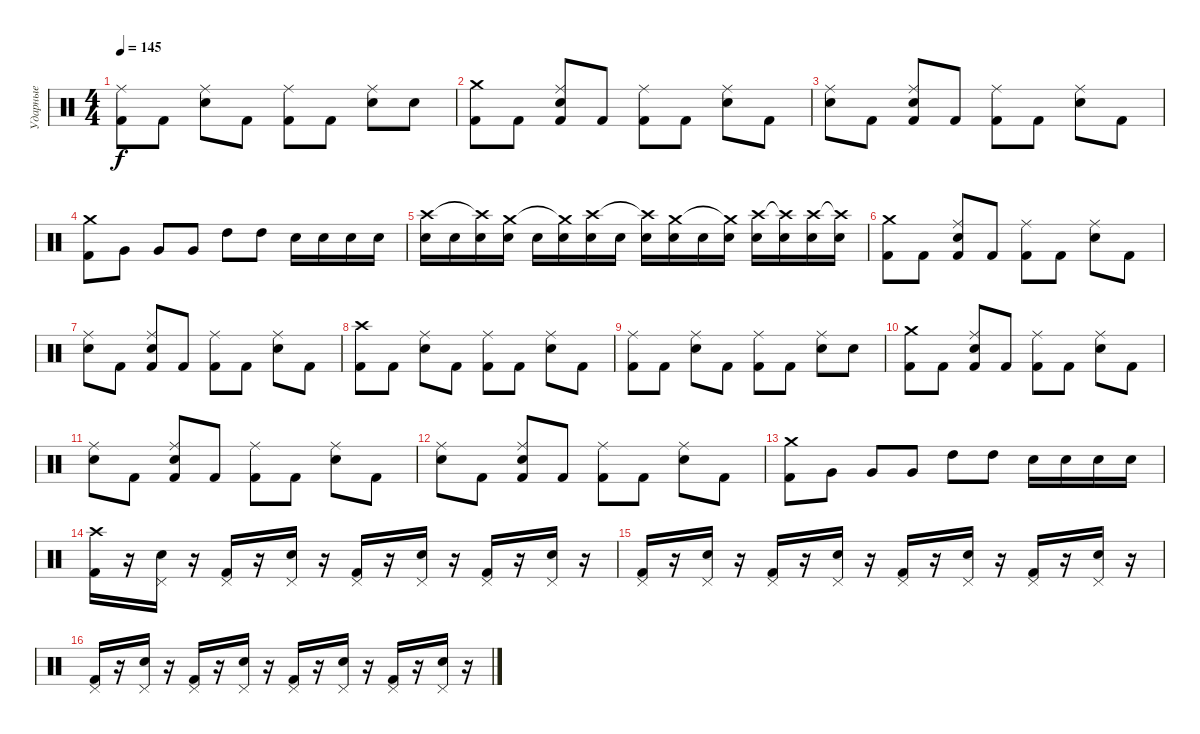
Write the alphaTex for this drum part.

\track ("Ударные" "Ударные") {instrument percussion}
\staff {score}
\articulation defaults
\ts (4 4)
\tempo 145
\clef neutral
\ks c
("Kick (hit) 2" "Ride (middle)").8{dy f} "Kick (hit) 2".8 ("Ride (middle)" "Electric Snare (hit)").8 "Kick (hit) 2".8 ("Kick (hit) 2" "Ride (middle)").8 "Kick (hit) 2".8 ("Electric Snare (hit)" "Ride (middle)").8 "Electric Snare (hit)".8 |
("Crash medium (hit)" "Kick (hit) 2").8 "Kick (hit) 2".8 ("Ride (middle)" "Kick (hit) 2" "Electric Snare (hit)").8 "Kick (hit) 2".8 ("Kick (hit) 2" "Ride (middle)").8 "Kick (hit) 2".8 ("Ride (middle)" "Electric Snare (hit)").8 "Kick (hit) 2".8 |
("Ride (middle)" "Electric Snare (hit)").8 "Kick (hit) 2".8 ("Ride (middle)" "Electric Snare (hit)" "Kick (hit) 2").8 "Kick (hit) 2".8 ("Ride (middle)" "Kick (hit) 2").8 "Kick (hit) 2".8 ("Ride (middle)" "Electric Snare (hit)").8 "Kick (hit) 2".8 |
("Crash medium (hit)" "Kick (hit) 2").8 "Very Low Tom (hit)".8 "Very Low Tom (hit)".8 "Very Low Tom (hit)".8 "High Tom (hit)".8 "High Tom (hit)".8 "Electric Snare (hit)".16 "Electric Snare (hit)".16 "Electric Snare (hit)".16 "Electric Snare (hit)".16 |
("Electric Snare (hit)" "Crash high (hit)").16 "Electric Snare (hit)".16 ("Electric Snare (hit)" "Crash high (hit)"{t}).16 ("Electric Snare (hit)" "Crash medium (hit)").16 "Electric Snare (hit)".16 ("Electric Snare (hit)" "Crash medium (hit)"{t}).16 ("Electric Snare (hit)" "Crash high (hit)").16 "Electric Snare (hit)".16 ("Electric Snare (hit)" "Crash high (hit)"{t}).16 ("Electric Snare (hit)" "Crash medium (hit)").16 "Electric Snare (hit)".16 ("Electric Snare (hit)" "Crash medium (hit)"{t}).16 ("Electric Snare (hit)" "Crash high (hit)").16 ("Electric Snare (hit)" "Crash high (hit)"{t}).16 ("Electric Snare (hit)" "Crash high (hit)").16 ("Electric Snare (hit)" "Crash high (hit)"{t}).16 |
("Crash medium (hit)" "Kick (hit) 2").8 "Kick (hit) 2".8 ("Ride (middle)" "Kick (hit) 2" "Electric Snare (hit)").8 "Kick (hit) 2".8 ("Kick (hit) 2" "Ride (middle)").8 "Kick (hit) 2".8 ("Ride (middle)" "Electric Snare (hit)").8 "Kick (hit) 2".8 |
("Ride (middle)" "Electric Snare (hit)").8 "Kick (hit) 2".8 ("Ride (middle)" "Electric Snare (hit)" "Kick (hit) 2").8 "Kick (hit) 2".8 ("Ride (middle)" "Kick (hit) 2").8 "Kick (hit) 2".8 ("Ride (middle)" "Electric Snare (hit)").8 "Kick (hit) 2".8 |
("Crash high (hit)" "Kick (hit) 2").8 "Kick (hit) 2".8 ("Ride (middle)" "Electric Snare (hit)").8 "Kick (hit) 2".8 ("Ride (middle)" "Kick (hit) 2").8 "Kick (hit) 2".8 ("Ride (middle)" "Electric Snare (hit)").8 "Kick (hit) 2".8 |
("Kick (hit) 2" "Ride (middle)").8 "Kick (hit) 2".8 ("Ride (middle)" "Electric Snare (hit)").8 "Kick (hit) 2".8 ("Kick (hit) 2" "Ride (middle)").8 "Kick (hit) 2".8 ("Electric Snare (hit)" "Ride (middle)").8 "Electric Snare (hit)".8 |
("Crash medium (hit)" "Kick (hit) 2").8 "Kick (hit) 2".8 ("Ride (middle)" "Kick (hit) 2" "Electric Snare (hit)").8 "Kick (hit) 2".8 ("Kick (hit) 2" "Ride (middle)").8 "Kick (hit) 2".8 ("Ride (middle)" "Electric Snare (hit)").8 "Kick (hit) 2".8 |
("Ride (middle)" "Electric Snare (hit)").8 "Kick (hit) 2".8 ("Ride (middle)" "Electric Snare (hit)" "Kick (hit) 2").8 "Kick (hit) 2".8 ("Ride (middle)" "Kick (hit) 2").8 "Kick (hit) 2".8 ("Ride (middle)" "Electric Snare (hit)").8 "Kick (hit) 2".8 |
("Ride (middle)" "Electric Snare (hit)").8 "Kick (hit) 2".8 ("Ride (middle)" "Electric Snare (hit)" "Kick (hit) 2").8 "Kick (hit) 2".8 ("Ride (middle)" "Kick (hit) 2").8 "Kick (hit) 2".8 ("Ride (middle)" "Electric Snare (hit)").8 "Kick (hit) 2".8 |
("Crash medium (hit)" "Kick (hit) 2").8 "Very Low Tom (hit)".8 "Very Low Tom (hit)".8 "Very Low Tom (hit)".8 "High Tom (hit)".8 "High Tom (hit)".8 "Electric Snare (hit)".16 "Electric Snare (hit)".16 "Electric Snare (hit)".16 "Electric Snare (hit)".16 |
("Kick (hit) 2" "Crash high (hit)").16 r.16 ("Electric Snare (hit)" "Pedal Hi-Hat (hit)").16 r.16 ("Kick (hit) 2" "Pedal Hi-Hat (hit)").16 r.16 ("Electric Snare (hit)" "Pedal Hi-Hat (hit)").16 r.16 ("Kick (hit) 2" "Pedal Hi-Hat (hit)").16 r.16 ("Electric Snare (hit)" "Pedal Hi-Hat (hit)").16 r.16 ("Kick (hit) 2" "Pedal Hi-Hat (hit)").16 r.16 ("Electric Snare (hit)" "Pedal Hi-Hat (hit)").16 r.16 |
("Kick (hit) 2" "Pedal Hi-Hat (hit)").16 r.16 ("Electric Snare (hit)" "Pedal Hi-Hat (hit)").16 r.16 ("Kick (hit) 2" "Pedal Hi-Hat (hit)").16 r.16 ("Electric Snare (hit)" "Pedal Hi-Hat (hit)").16 r.16 ("Kick (hit) 2" "Pedal Hi-Hat (hit)").16 r.16 ("Electric Snare (hit)" "Pedal Hi-Hat (hit)").16 r.16 ("Kick (hit) 2" "Pedal Hi-Hat (hit)").16 r.16 ("Electric Snare (hit)" "Pedal Hi-Hat (hit)").16 r.16 |
("Kick (hit) 2" "Pedal Hi-Hat (hit)").16 r.16 ("Electric Snare (hit)" "Pedal Hi-Hat (hit)").16 r.16 ("Kick (hit) 2" "Pedal Hi-Hat (hit)").16 r.16 ("Electric Snare (hit)" "Pedal Hi-Hat (hit)").16 r.16 ("Kick (hit) 2" "Pedal Hi-Hat (hit)").16 r.16 ("Electric Snare (hit)" "Pedal Hi-Hat (hit)").16 r.16 ("Kick (hit) 2" "Pedal Hi-Hat (hit)").16 r.16 ("Electric Snare (hit)" "Pedal Hi-Hat (hit)").16 r.16
